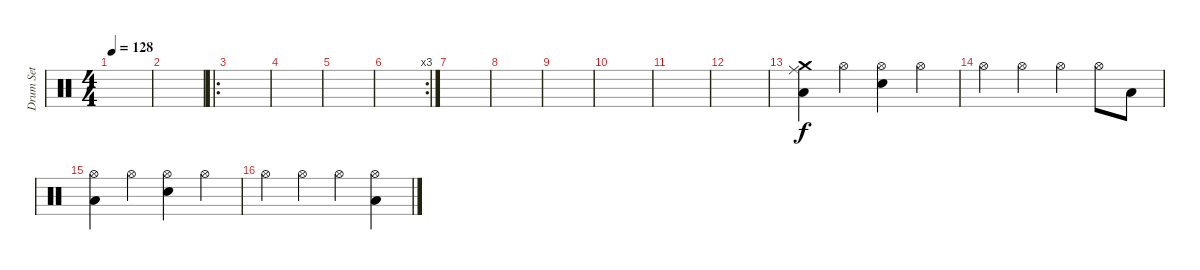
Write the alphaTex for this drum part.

\track ("Drum Set" "Drum Set") {instrument percussion}
\staff {score}
\articulation defaults
\ts (4 4)
\tempo 128
\clef neutral
\ks c
|
|
\ro
|
|
|
\rc 3
|
|
|
|
|
|
|
("Crash medium (hit)" "Ride (middle)" "Low Floor Tom (hit)").4 "Hi-Hat (open)".4 ("Hi-Hat (open)" "Snare (hit) 2").4 "Hi-Hat (open)".4 |
"Hi-Hat (open)".4 "Hi-Hat (open)".4 "Hi-Hat (open)".4 "Hi-Hat (open)".8 "Low Floor Tom (hit)".8 |
("Hi-Hat (open)" "Low Floor Tom (hit)").4 "Hi-Hat (open)".4 ("Hi-Hat (open)" "Snare (hit) 2").4 "Hi-Hat (open)".4 |
"Hi-Hat (open)".4 "Hi-Hat (open)".4 "Hi-Hat (open)".4 ("Hi-Hat (open)" "Low Floor Tom (hit)").4
